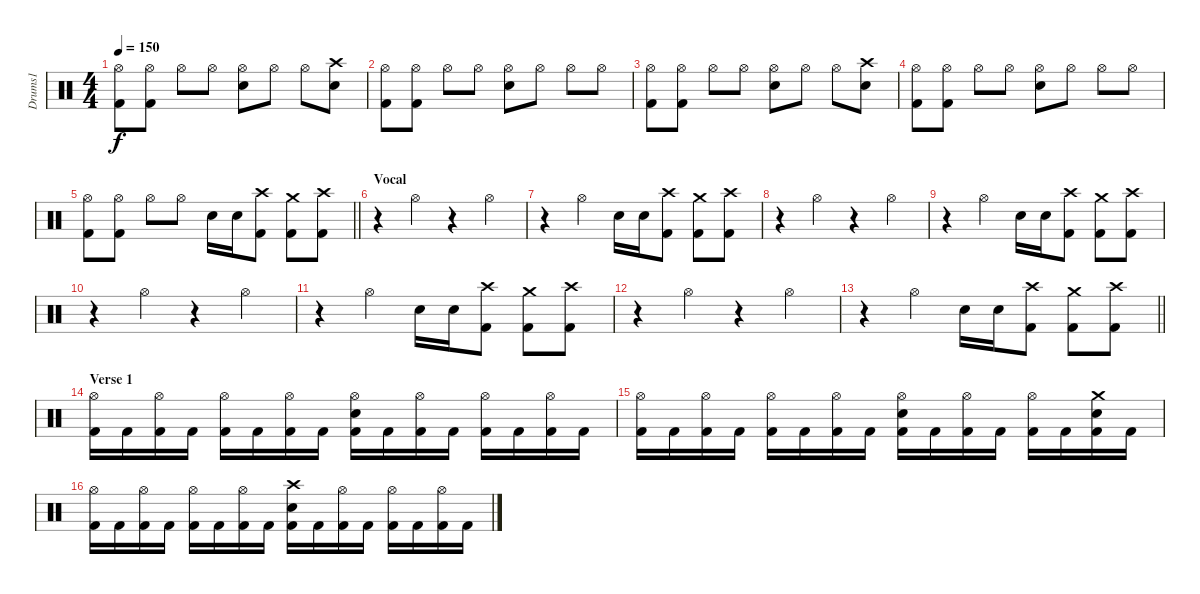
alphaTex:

\track ("Drums1" "Drums1") {instrument percussion}
\staff {score}
\articulation defaults
\ts (4 4)
\tempo 150
\clef neutral
\ks c
("Hi-Hat (open)" "Kick (hit) 2").8{dy f} ("Hi-Hat (open)" "Kick (hit) 2").8 "Hi-Hat (open)".8 "Hi-Hat (open)".8 ("Hi-Hat (open)" "Electric Snare (hit)").8 "Hi-Hat (open)".8 "Hi-Hat (open)".8 ("Crash high (hit)" "Electric Snare (hit)").8 |
("Hi-Hat (open)" "Kick (hit) 2").8 ("Hi-Hat (open)" "Kick (hit) 2").8 "Hi-Hat (open)".8 "Hi-Hat (open)".8 ("Hi-Hat (open)" "Electric Snare (hit)").8 "Hi-Hat (open)".8 "Hi-Hat (open)".8 "Hi-Hat (open)".8 |
("Hi-Hat (open)" "Kick (hit) 2").8 ("Hi-Hat (open)" "Kick (hit) 2").8 "Hi-Hat (open)".8 "Hi-Hat (open)".8 ("Hi-Hat (open)" "Electric Snare (hit)").8 "Hi-Hat (open)".8 "Hi-Hat (open)".8 ("Crash high (hit)" "Electric Snare (hit)").8 |
("Hi-Hat (open)" "Kick (hit) 2").8 ("Hi-Hat (open)" "Kick (hit) 2").8 "Hi-Hat (open)".8 "Hi-Hat (open)".8 ("Hi-Hat (open)" "Electric Snare (hit)").8 "Hi-Hat (open)".8 "Hi-Hat (open)".8 "Hi-Hat (open)".8 |
\barLineRight lightlight
("Hi-Hat (open)" "Kick (hit) 2").8 ("Hi-Hat (open)" "Kick (hit) 2").8 "Hi-Hat (open)".8 "Hi-Hat (open)".8 "Electric Snare (hit)".16 "Electric Snare (hit)".16 ("Crash high (hit)" "Kick (hit) 2").8 ("Crash medium (hit)" "Kick (hit) 2").8 ("Crash high (hit)" "Kick (hit) 2").8 |
\section ("" "Vocal")
r.4 "Hi-Hat (open)".4 r.4 "Hi-Hat (open)".4 |
r.4 "Hi-Hat (open)".4 "Electric Snare (hit)".16 "Electric Snare (hit)".16 ("Crash high (hit)" "Kick (hit) 2").8 ("Crash medium (hit)" "Kick (hit) 2").8 ("Crash high (hit)" "Kick (hit) 2").8 |
r.4 "Hi-Hat (open)".4 r.4 "Hi-Hat (open)".4 |
r.4 "Hi-Hat (open)".4 "Electric Snare (hit)".16 "Electric Snare (hit)".16 ("Crash high (hit)" "Kick (hit) 2").8 ("Crash medium (hit)" "Kick (hit) 2").8 ("Crash high (hit)" "Kick (hit) 2").8 |
r.4 "Hi-Hat (open)".4 r.4 "Hi-Hat (open)".4 |
r.4 "Hi-Hat (open)".4 "Electric Snare (hit)".16 "Electric Snare (hit)".16 ("Crash high (hit)" "Kick (hit) 2").8 ("Crash medium (hit)" "Kick (hit) 2").8 ("Crash high (hit)" "Kick (hit) 2").8 |
r.4 "Hi-Hat (open)".4 r.4 "Hi-Hat (open)".4 |
\barLineRight lightlight
r.4 "Hi-Hat (open)".4 "Electric Snare (hit)".16 "Electric Snare (hit)".16 ("Crash high (hit)" "Kick (hit) 2").8 ("Crash medium (hit)" "Kick (hit) 2").8 ("Crash high (hit)" "Kick (hit) 2").8 |
\section ("" "Verse 1")
("Hi-Hat (open)" "Kick (hit) 2").16 "Kick (hit) 2".16 ("Hi-Hat (open)" "Kick (hit) 2").16 "Kick (hit) 2".16 ("Hi-Hat (open)" "Kick (hit) 2").16 "Kick (hit) 2".16 ("Hi-Hat (open)" "Kick (hit) 2").16 "Kick (hit) 2".16 ("Hi-Hat (open)" "Electric Snare (hit)" "Kick (hit) 2").16 "Kick (hit) 2".16 ("Hi-Hat (open)" "Kick (hit) 2").16 "Kick (hit) 2".16 ("Hi-Hat (open)" "Kick (hit) 2").16 "Kick (hit) 2".16 ("Hi-Hat (open)" "Kick (hit) 2").16 "Kick (hit) 2".16 |
("Hi-Hat (open)" "Kick (hit) 2").16 "Kick (hit) 2".16 ("Hi-Hat (open)" "Kick (hit) 2").16 "Kick (hit) 2".16 ("Hi-Hat (open)" "Kick (hit) 2").16 "Kick (hit) 2".16 ("Hi-Hat (open)" "Kick (hit) 2").16 "Kick (hit) 2".16 ("Hi-Hat (open)" "Electric Snare (hit)" "Kick (hit) 2").16 "Kick (hit) 2".16 ("Hi-Hat (open)" "Kick (hit) 2").16 "Kick (hit) 2".16 ("Hi-Hat (open)" "Kick (hit) 2").16 "Kick (hit) 2".16 ("Crash medium (hit)" "Electric Snare (hit)" "Kick (hit) 2").16 "Kick (hit) 2".16 |
("Hi-Hat (open)" "Kick (hit) 2").16 "Kick (hit) 2".16 ("Hi-Hat (open)" "Kick (hit) 2").16 "Kick (hit) 2".16 ("Hi-Hat (open)" "Kick (hit) 2").16 "Kick (hit) 2".16 ("Hi-Hat (open)" "Kick (hit) 2").16 "Kick (hit) 2".16 ("Crash high (hit)" "Electric Snare (hit)" "Kick (hit) 2").16 "Kick (hit) 2".16 ("Hi-Hat (open)" "Kick (hit) 2").16 "Kick (hit) 2".16 ("Hi-Hat (open)" "Kick (hit) 2").16 "Kick (hit) 2".16 ("Hi-Hat (open)" "Kick (hit) 2").16 "Kick (hit) 2".16
